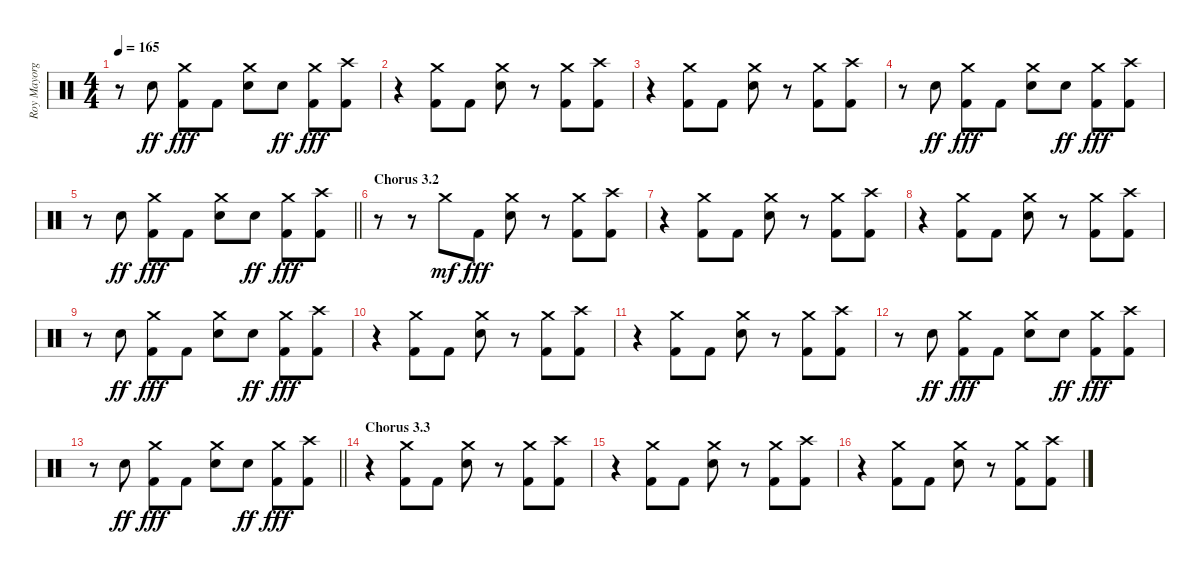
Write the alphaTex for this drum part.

\track ("Roy Mayorga" "Roy Mayorg") {instrument percussion}
\staff {score}
\articulation defaults
\ts (4 4)
\tempo 165
\clef neutral
\ks c
r.8{dy fff} "Electric Snare (hit)".8{dy ff} ("Crash medium (hit)" "Kick (hit) 2").8{dy fff} "Kick (hit) 2".8 ("Crash medium (hit)" "Electric Snare (hit)").8 "Electric Snare (hit)".8{dy ff} ("Crash medium (hit)" "Kick (hit) 2").8{dy fff} ("Crash high (hit)" "Kick (hit) 2").8 |
r.4 ("Crash medium (hit)" "Kick (hit) 2").8 "Kick (hit) 2".8 ("Crash medium (hit)" "Electric Snare (hit)").8 r.8 ("Crash medium (hit)" "Kick (hit) 2").8 ("Crash high (hit)" "Kick (hit) 2").8 |
r.4 ("Crash medium (hit)" "Kick (hit) 2").8 "Kick (hit) 2".8 ("Crash medium (hit)" "Electric Snare (hit)").8 r.8 ("Crash medium (hit)" "Kick (hit) 2").8 ("Crash high (hit)" "Kick (hit) 2").8 |
r.8 "Electric Snare (hit)".8{dy ff} ("Crash medium (hit)" "Kick (hit) 2").8{dy fff} "Kick (hit) 2".8 ("Crash medium (hit)" "Electric Snare (hit)").8 "Electric Snare (hit)".8{dy ff} ("Crash medium (hit)" "Kick (hit) 2").8{dy fff} ("Crash high (hit)" "Kick (hit) 2").8 |
\barLineRight lightlight
r.8 "Electric Snare (hit)".8{dy ff} ("Crash medium (hit)" "Kick (hit) 2").8{dy fff} "Kick (hit) 2".8 ("Crash medium (hit)" "Electric Snare (hit)").8 "Electric Snare (hit)".8{dy ff} ("Crash medium (hit)" "Kick (hit) 2").8{dy fff} ("Crash high (hit)" "Kick (hit) 2").8 |
\section ("" "Chorus 3.2")
r.8 r.8 "Crash medium (hit)".8{dy mf} "Kick (hit) 2".8{dy fff} ("Crash medium (hit)" "Electric Snare (hit)").8 r.8 ("Crash medium (hit)" "Kick (hit) 2").8 ("Crash high (hit)" "Kick (hit) 2").8 |
r.4 ("Crash medium (hit)" "Kick (hit) 2").8 "Kick (hit) 2".8 ("Crash medium (hit)" "Electric Snare (hit)").8 r.8 ("Crash medium (hit)" "Kick (hit) 2").8 ("Crash high (hit)" "Kick (hit) 2").8 |
r.4 ("Crash medium (hit)" "Kick (hit) 2").8 "Kick (hit) 2".8 ("Crash medium (hit)" "Electric Snare (hit)").8 r.8 ("Crash medium (hit)" "Kick (hit) 2").8 ("Crash high (hit)" "Kick (hit) 2").8 |
r.8 "Electric Snare (hit)".8{dy ff} ("Crash medium (hit)" "Kick (hit) 2").8{dy fff} "Kick (hit) 2".8 ("Crash medium (hit)" "Electric Snare (hit)").8 "Electric Snare (hit)".8{dy ff} ("Crash medium (hit)" "Kick (hit) 2").8{dy fff} ("Crash high (hit)" "Kick (hit) 2").8 |
r.4 ("Crash medium (hit)" "Kick (hit) 2").8 "Kick (hit) 2".8 ("Crash medium (hit)" "Electric Snare (hit)").8 r.8 ("Crash medium (hit)" "Kick (hit) 2").8 ("Crash high (hit)" "Kick (hit) 2").8 |
r.4 ("Crash medium (hit)" "Kick (hit) 2").8 "Kick (hit) 2".8 ("Crash medium (hit)" "Electric Snare (hit)").8 r.8 ("Crash medium (hit)" "Kick (hit) 2").8 ("Crash high (hit)" "Kick (hit) 2").8 |
r.8 "Electric Snare (hit)".8{dy ff} ("Crash medium (hit)" "Kick (hit) 2").8{dy fff} "Kick (hit) 2".8 ("Crash medium (hit)" "Electric Snare (hit)").8 "Electric Snare (hit)".8{dy ff} ("Crash medium (hit)" "Kick (hit) 2").8{dy fff} ("Crash high (hit)" "Kick (hit) 2").8 |
\barLineRight lightlight
r.8 "Electric Snare (hit)".8{dy ff} ("Crash medium (hit)" "Kick (hit) 2").8{dy fff} "Kick (hit) 2".8 ("Crash medium (hit)" "Electric Snare (hit)").8 "Electric Snare (hit)".8{dy ff} ("Crash medium (hit)" "Kick (hit) 2").8{dy fff} ("Crash high (hit)" "Kick (hit) 2").8 |
\section ("" "Chorus 3.3")
r.4 ("Crash medium (hit)" "Kick (hit) 2").8 "Kick (hit) 2".8 ("Crash medium (hit)" "Electric Snare (hit)").8 r.8 ("Crash medium (hit)" "Kick (hit) 2").8 ("Crash high (hit)" "Kick (hit) 2").8 |
r.4 ("Crash medium (hit)" "Kick (hit) 2").8 "Kick (hit) 2".8 ("Crash medium (hit)" "Electric Snare (hit)").8 r.8 ("Crash medium (hit)" "Kick (hit) 2").8 ("Crash high (hit)" "Kick (hit) 2").8 |
r.4 ("Crash medium (hit)" "Kick (hit) 2").8 "Kick (hit) 2".8 ("Crash medium (hit)" "Electric Snare (hit)").8 r.8 ("Crash medium (hit)" "Kick (hit) 2").8 ("Crash high (hit)" "Kick (hit) 2").8
